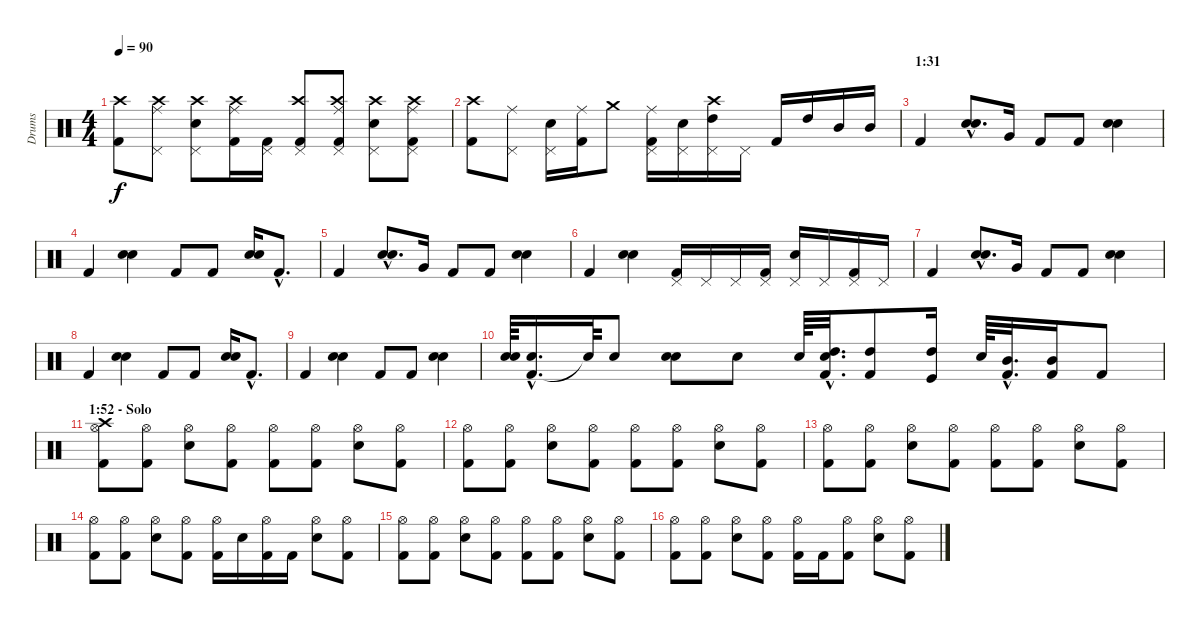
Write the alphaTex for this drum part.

\track ("Drums" "Drums") {instrument percussion}
\staff {score}
\articulation defaults
\ts (4 4)
\tempo 90
\clef neutral
\ks c
("Kick (hit) 2" "Crash high (hit)").8{dy f} ("Pedal Hi-Hat (hit)" "Crash high (hit)" "Ride (middle)").8 ("Snare (hit) 2" "Pedal Hi-Hat (hit)" "Crash high (hit)").8 ("Kick (hit) 2" "Crash high (hit)" "Ride (middle)").16 ("Kick (hit) 2" "Pedal Hi-Hat (hit)").16 ("Kick (hit) 2" "Pedal Hi-Hat (hit)" "Crash high (hit)").8 ("Kick (hit) 2" "Pedal Hi-Hat (hit)" "Crash high (hit)" "Ride (middle)").8 ("Snare (hit) 2" "Pedal Hi-Hat (hit)" "Crash high (hit)").8 ("Kick (hit) 2" "Pedal Hi-Hat (hit)" "Crash high (hit)" "Ride (middle)").8 |
("Kick (hit) 2" "Crash high (hit)").8 ("Pedal Hi-Hat (hit)" "Ride (middle)").8 ("Snare (hit) 2" "Pedal Hi-Hat (hit)").16 ("Kick (hit) 2" "Ride (middle)").16 "Crash medium (hit)".8 ("Kick (hit) 2" "Pedal Hi-Hat (hit)" "Ride (middle)").16 ("Snare (hit) 2" "Pedal Hi-Hat (hit)").16 ("High Tom (hit)" "Pedal Hi-Hat (hit)" "Crash high (hit)").16 "Pedal Hi-Hat (hit)".16 "Kick (hit) 2".16 "High Tom (hit)".16 "Mid Tom (hit)".16 "Mid Tom (hit)".16 |
\section ("" "1:31")
"Kick (hit) 2".4 ("Hand Clap (hit)"{hac} "Snare (hit) 2"{hac}).8{d} "Very Low Tom (hit)".16 "Kick (hit) 2".8 "Kick (hit) 2".8 ("Hand Clap (hit)" "Snare (hit) 2").4 |
"Kick (hit) 2".4 ("Hand Clap (hit)" "Snare (hit) 2").4 "Kick (hit) 2".8 "Kick (hit) 2".8 ("Hand Clap (hit)" "Snare (hit) 2").16 "Kick (hit) 2"{hac}.8{d} |
"Kick (hit) 2".4 ("Hand Clap (hit)"{hac} "Snare (hit) 2"{hac}).8{d} "Very Low Tom (hit)".16 "Kick (hit) 2".8 "Kick (hit) 2".8 ("Hand Clap (hit)" "Snare (hit) 2").4 |
"Kick (hit) 2".4 ("Hand Clap (hit)" "Snare (hit) 2").4 ("Kick (hit) 2" "Pedal Hi-Hat (hit)").16 "Pedal Hi-Hat (hit)".16 "Pedal Hi-Hat (hit)".16 ("Kick (hit) 2" "Pedal Hi-Hat (hit)").16 ("Snare (hit) 2" "Pedal Hi-Hat (hit)").16 "Pedal Hi-Hat (hit)".16 ("Kick (hit) 2" "Pedal Hi-Hat (hit)").16 "Pedal Hi-Hat (hit)".16 |
"Kick (hit) 2".4 ("Hand Clap (hit)"{hac} "Snare (hit) 2"{hac}).8{d} "Very Low Tom (hit)".16 "Kick (hit) 2".8 "Kick (hit) 2".8 ("Hand Clap (hit)" "Snare (hit) 2").4 |
"Kick (hit) 2".4 ("Hand Clap (hit)" "Snare (hit) 2").4 "Kick (hit) 2".8 "Kick (hit) 2".8 ("Hand Clap (hit)" "Snare (hit) 2").16 "Kick (hit) 2"{hac}.8{d} |
"Kick (hit) 2".4 ("Hand Clap (hit)" "Snare (hit) 2").4 "Kick (hit) 2".8 "Kick (hit) 2".8 ("Hand Clap (hit)" "Snare (hit) 2").4 |
("Snare (hit) 2" "Hand Clap (hit)").64 ("Kick (hit) 2"{hac} "Snare (hit) 2"{hac}).16{d} "Snare (hit)"{t}.64 "Snare (hit) 2".8 ("Hand Clap (hit)" "Snare (hit) 2").8 "Snare (hit) 2".8 "Snare (hit) 2".64 ("Kick (hit) 2"{hac} "Snare (hit) 2"{hac} "High Tom (hit)"{hac}).32{d} ("Kick (hit) 2" "High Tom (hit)").8 ("Kick (hit)" "High Tom (hit)").16 "Snare (hit) 2".64 ("Kick (hit) 2"{hac} "Mid Tom (hit)"{hac}).32{d} ("Kick (hit) 2" "Mid Tom (hit)").16 "Kick (hit) 2".8 |
\section ("" "1:52 - Solo")
("Kick (hit) 2" "Hi-Hat (open)" "Crash high (hit)").8 ("Kick (hit) 2" "Hi-Hat (open)").8 ("Electric Snare (hit)" "Hi-Hat (open)").8 ("Kick (hit) 2" "Hi-Hat (open)").8 ("Kick (hit) 2" "Hi-Hat (open)").8 ("Kick (hit) 2" "Hi-Hat (open)").8 ("Electric Snare (hit)" "Hi-Hat (open)").8 ("Kick (hit) 2" "Hi-Hat (open)").8 |
("Kick (hit) 2" "Hi-Hat (open)").8 ("Kick (hit) 2" "Hi-Hat (open)").8 ("Electric Snare (hit)" "Hi-Hat (open)").8 ("Kick (hit) 2" "Hi-Hat (open)").8 ("Kick (hit) 2" "Hi-Hat (open)").8 ("Kick (hit) 2" "Hi-Hat (open)").8 ("Electric Snare (hit)" "Hi-Hat (open)").8 ("Kick (hit) 2" "Hi-Hat (open)").8 |
("Kick (hit) 2" "Hi-Hat (open)").8 ("Kick (hit) 2" "Hi-Hat (open)").8 ("Electric Snare (hit)" "Hi-Hat (open)").8 ("Kick (hit) 2" "Hi-Hat (open)").8 ("Kick (hit) 2" "Hi-Hat (open)").8 ("Kick (hit) 2" "Hi-Hat (open)").8 ("Electric Snare (hit)" "Hi-Hat (open)").8 ("Kick (hit) 2" "Hi-Hat (open)").8 |
("Kick (hit) 2" "Hi-Hat (open)").8 ("Kick (hit) 2" "Hi-Hat (open)").8 ("Electric Snare (hit)" "Hi-Hat (open)").8 ("Kick (hit) 2" "Hi-Hat (open)").8 ("Kick (hit) 2" "Hi-Hat (open)").16 "Snare (hit) 2".16 ("Kick (hit) 2" "Hi-Hat (open)").16 "Kick (hit) 2".16 ("Electric Snare (hit)" "Hi-Hat (open)").8 ("Kick (hit) 2" "Hi-Hat (open)").8 |
("Kick (hit) 2" "Hi-Hat (open)").8 ("Kick (hit) 2" "Hi-Hat (open)").8 ("Electric Snare (hit)" "Hi-Hat (open)").8 ("Kick (hit) 2" "Hi-Hat (open)").8 ("Kick (hit) 2" "Hi-Hat (open)").8 ("Kick (hit) 2" "Hi-Hat (open)").8 ("Electric Snare (hit)" "Hi-Hat (open)").8 ("Kick (hit) 2" "Hi-Hat (open)").8 |
("Kick (hit) 2" "Hi-Hat (open)").8 ("Kick (hit) 2" "Hi-Hat (open)").8 ("Electric Snare (hit)" "Hi-Hat (open)").8 ("Kick (hit) 2" "Hi-Hat (open)").8 ("Kick (hit) 2" "Hi-Hat (open)").16 "Kick (hit) 2".16 ("Kick (hit) 2" "Hi-Hat (open)").8 ("Electric Snare (hit)" "Hi-Hat (open)").8 ("Kick (hit) 2" "Hi-Hat (open)").8
